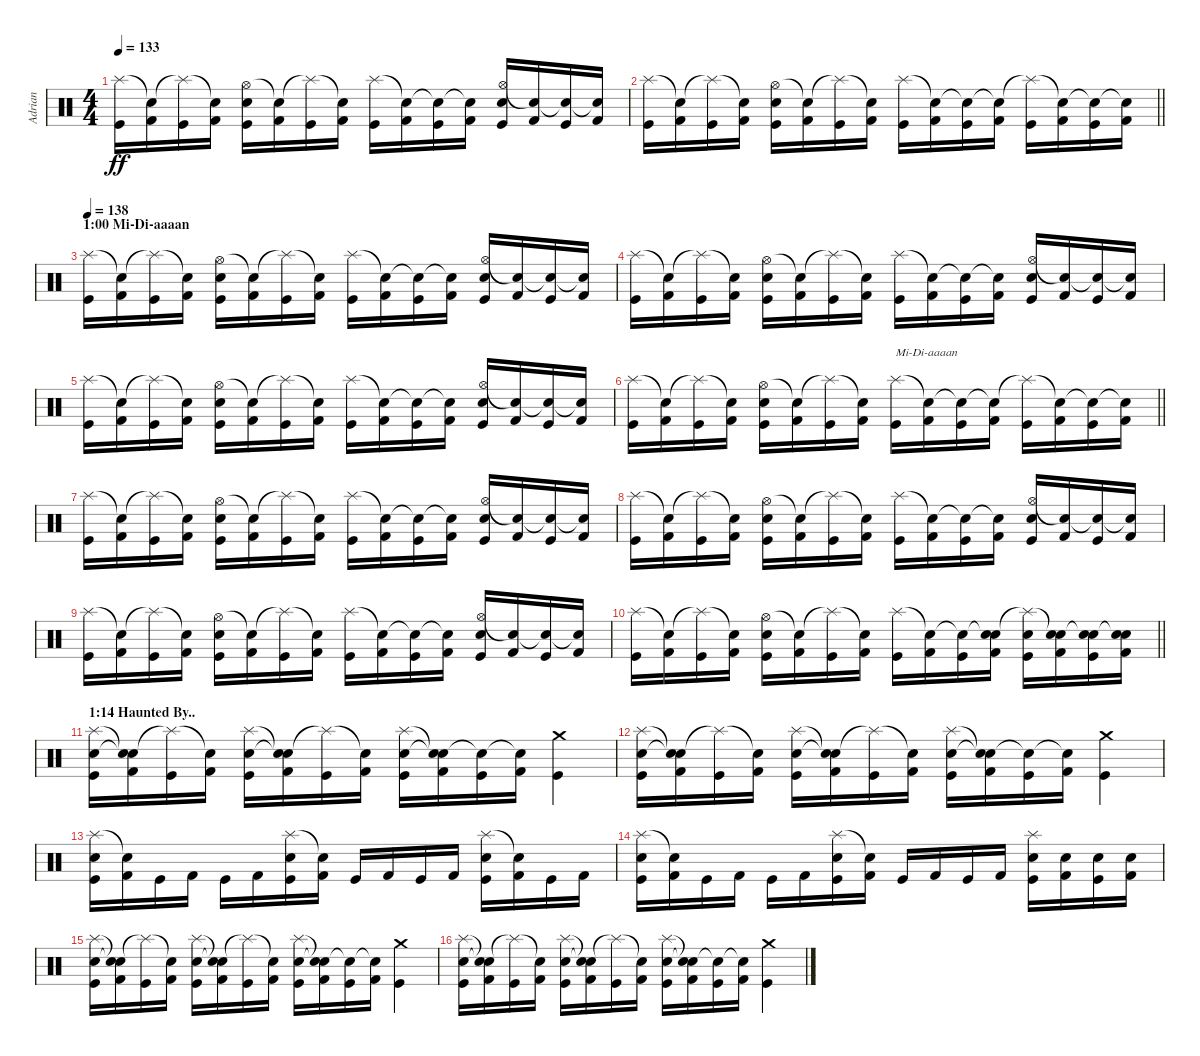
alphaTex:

\track ("Adrian" "Adrian") {instrument percussion}
\staff {score}
\articulation defaults
\ts (4 4)
\tempo 133
\clef neutral
\ks c
("Splash (hit)" "Kick (hit)").16{dy ff} ("Snare (hit)"{t} "Kick (hit) 2").16 ("Splash (hit)"{t} "Kick (hit)").16 ("Snare (hit)"{t} "Kick (hit) 2").16 ("Hi-Hat (open)" "Electric Snare (hit)" "Kick (hit)").16 ("Snare (hit)"{t} "Kick (hit) 2").16 ("Splash (hit)"{t} "Kick (hit)").16 ("Snare (hit)"{t} "Kick (hit) 2").16 ("Splash (hit)" "Kick (hit)").16 ("Snare (hit)"{t} "Kick (hit) 2").16 ("Snare (hit)"{t} "Kick (hit)").16 ("Snare (hit)"{t} "Kick (hit) 2").16 ("Hi-Hat (open)" "Electric Snare (hit)" "Kick (hit)").16 ("Snare (hit)"{t} "Kick (hit) 2").16 ("Snare (hit)"{t} "Kick (hit)").16 ("Snare (hit)"{t} "Kick (hit) 2").16 |
\barLineRight lightlight
("Splash (hit)" "Kick (hit)").16 ("Snare (hit)"{t} "Kick (hit) 2").16 ("Splash (hit)"{t} "Kick (hit)").16 ("Snare (hit)"{t} "Kick (hit) 2").16 ("Hi-Hat (open)" "Electric Snare (hit)" "Kick (hit)").16 ("Snare (hit)"{t} "Kick (hit) 2").16 ("Splash (hit)"{t} "Kick (hit)").16 ("Snare (hit)"{t} "Kick (hit) 2").16 ("Splash (hit)" "Kick (hit)").16 ("Snare (hit)"{t} "Kick (hit) 2").16 ("Snare (hit)"{t} "Kick (hit)").16 ("Snare (hit)"{t} "Kick (hit) 2").16 ("Splash (hit)"{t} "Kick (hit)").16 ("Snare (hit)"{t} "Kick (hit) 2").16 ("Snare (hit)"{t} "Kick (hit)").16 ("Snare (hit)"{t} "Kick (hit) 2").16 |
\section ("" "1:00 Mi-Di-aaaan")
\tempo 138
("Splash (hit)" "Kick (hit)").16 ("Snare (hit)"{t} "Kick (hit) 2").16 ("Splash (hit)"{t} "Kick (hit)").16 ("Snare (hit)"{t} "Kick (hit) 2").16 ("Hi-Hat (open)" "Electric Snare (hit)" "Kick (hit)").16 ("Snare (hit)"{t} "Kick (hit) 2").16 ("Splash (hit)"{t} "Kick (hit)").16 ("Snare (hit)"{t} "Kick (hit) 2").16 ("Splash (hit)" "Kick (hit)").16 ("Snare (hit)"{t} "Kick (hit) 2").16 ("Snare (hit)"{t} "Kick (hit)").16 ("Snare (hit)"{t} "Kick (hit) 2").16 ("Hi-Hat (open)" "Electric Snare (hit)" "Kick (hit)").16 ("Snare (hit)"{t} "Kick (hit) 2").16 ("Snare (hit)"{t} "Kick (hit)").16 ("Snare (hit)"{t} "Kick (hit) 2").16 |
("Splash (hit)" "Kick (hit)").16 ("Snare (hit)"{t} "Kick (hit) 2").16 ("Splash (hit)"{t} "Kick (hit)").16 ("Snare (hit)"{t} "Kick (hit) 2").16 ("Hi-Hat (open)" "Electric Snare (hit)" "Kick (hit)").16 ("Snare (hit)"{t} "Kick (hit) 2").16 ("Splash (hit)"{t} "Kick (hit)").16 ("Snare (hit)"{t} "Kick (hit) 2").16 ("Splash (hit)" "Kick (hit)").16 ("Snare (hit)"{t} "Kick (hit) 2").16 ("Snare (hit)"{t} "Kick (hit)").16 ("Snare (hit)"{t} "Kick (hit) 2").16 ("Hi-Hat (open)" "Electric Snare (hit)" "Kick (hit)").16 ("Snare (hit)"{t} "Kick (hit) 2").16 ("Snare (hit)"{t} "Kick (hit)").16 ("Snare (hit)"{t} "Kick (hit) 2").16 |
("Splash (hit)" "Kick (hit)").16 ("Snare (hit)"{t} "Kick (hit) 2").16 ("Splash (hit)"{t} "Kick (hit)").16 ("Snare (hit)"{t} "Kick (hit) 2").16 ("Hi-Hat (open)" "Electric Snare (hit)" "Kick (hit)").16 ("Snare (hit)"{t} "Kick (hit) 2").16 ("Splash (hit)"{t} "Kick (hit)").16 ("Snare (hit)"{t} "Kick (hit) 2").16 ("Splash (hit)" "Kick (hit)").16 ("Snare (hit)"{t} "Kick (hit) 2").16 ("Snare (hit)"{t} "Kick (hit)").16 ("Snare (hit)"{t} "Kick (hit) 2").16 ("Hi-Hat (open)" "Electric Snare (hit)" "Kick (hit)").16 ("Snare (hit)"{t} "Kick (hit) 2").16 ("Snare (hit)"{t} "Kick (hit)").16 ("Snare (hit)"{t} "Kick (hit) 2").16 |
\barLineRight lightlight
("Splash (hit)" "Kick (hit)").16 ("Snare (hit)"{t} "Kick (hit) 2").16 ("Splash (hit)"{t} "Kick (hit)").16 ("Snare (hit)"{t} "Kick (hit) 2").16 ("Hi-Hat (open)" "Electric Snare (hit)" "Kick (hit)").16 ("Snare (hit)"{t} "Kick (hit) 2").16 ("Splash (hit)"{t} "Kick (hit)").16 ("Snare (hit)"{t} "Kick (hit) 2").16 ("Splash (hit)" "Kick (hit)").16{txt "Mi-Di-aaaan"} ("Snare (hit)"{t} "Kick (hit) 2").16 ("Snare (hit)"{t} "Kick (hit)").16 ("Snare (hit)"{t} "Kick (hit) 2").16 ("Splash (hit)"{t} "Kick (hit)").16 ("Snare (hit)"{t} "Kick (hit) 2").16 ("Snare (hit)"{t} "Kick (hit)").16 ("Snare (hit)"{t} "Kick (hit) 2").16 |
("Splash (hit)" "Kick (hit)").16 ("Snare (hit)"{t} "Kick (hit) 2").16 ("Splash (hit)"{t} "Kick (hit)").16 ("Snare (hit)"{t} "Kick (hit) 2").16 ("Hi-Hat (open)" "Electric Snare (hit)" "Kick (hit)").16 ("Snare (hit)"{t} "Kick (hit) 2").16 ("Splash (hit)"{t} "Kick (hit)").16 ("Snare (hit)"{t} "Kick (hit) 2").16 ("Splash (hit)" "Kick (hit)").16 ("Snare (hit)"{t} "Kick (hit) 2").16 ("Snare (hit)"{t} "Kick (hit)").16 ("Snare (hit)"{t} "Kick (hit) 2").16 ("Hi-Hat (open)" "Electric Snare (hit)" "Kick (hit)").16 ("Snare (hit)"{t} "Kick (hit) 2").16 ("Snare (hit)"{t} "Kick (hit)").16 ("Snare (hit)"{t} "Kick (hit) 2").16 |
("Splash (hit)" "Kick (hit)").16 ("Snare (hit)"{t} "Kick (hit) 2").16 ("Splash (hit)"{t} "Kick (hit)").16 ("Snare (hit)"{t} "Kick (hit) 2").16 ("Hi-Hat (open)" "Electric Snare (hit)" "Kick (hit)").16 ("Snare (hit)"{t} "Kick (hit) 2").16 ("Splash (hit)"{t} "Kick (hit)").16 ("Snare (hit)"{t} "Kick (hit) 2").16 ("Splash (hit)" "Kick (hit)").16 ("Snare (hit)"{t} "Kick (hit) 2").16 ("Snare (hit)"{t} "Kick (hit)").16 ("Snare (hit)"{t} "Kick (hit) 2").16 ("Hi-Hat (open)" "Electric Snare (hit)" "Kick (hit)").16 ("Snare (hit)"{t} "Kick (hit) 2").16 ("Snare (hit)"{t} "Kick (hit)").16 ("Snare (hit)"{t} "Kick (hit) 2").16 |
("Splash (hit)" "Kick (hit)").16 ("Snare (hit)"{t} "Kick (hit) 2").16 ("Splash (hit)"{t} "Kick (hit)").16 ("Snare (hit)"{t} "Kick (hit) 2").16 ("Hi-Hat (open)" "Electric Snare (hit)" "Kick (hit)").16 ("Snare (hit)"{t} "Kick (hit) 2").16 ("Splash (hit)"{t} "Kick (hit)").16 ("Snare (hit)"{t} "Kick (hit) 2").16 ("Splash (hit)" "Kick (hit)").16 ("Snare (hit)"{t} "Kick (hit) 2").16 ("Snare (hit)"{t} "Kick (hit)").16 ("Snare (hit)"{t} "Kick (hit) 2").16 ("Hi-Hat (open)" "Electric Snare (hit)" "Kick (hit)").16 ("Snare (hit)"{t} "Kick (hit) 2").16 ("Snare (hit)"{t} "Kick (hit)").16 ("Snare (hit)"{t} "Kick (hit) 2").16 |
\barLineRight lightlight
("Splash (hit)" "Kick (hit)").16 ("Snare (hit)"{t} "Kick (hit) 2").16 ("Splash (hit)"{t} "Kick (hit)").16 ("Snare (hit)"{t} "Kick (hit) 2").16 ("Hi-Hat (open)" "Electric Snare (hit)" "Kick (hit)").16 ("Snare (hit)"{t} "Kick (hit) 2").16 ("Splash (hit)"{t} "Kick (hit)").16 ("Snare (hit)"{t} "Kick (hit) 2").16 ("Splash (hit)" "Kick (hit)").16 ("Snare (hit)"{t} "Kick (hit) 2").16 ("Snare (hit)"{t} "Kick (hit)").16 ("Snare (hit)"{t} "Electric Snare (hit)" "Kick (hit) 2").16 ("Splash (hit)"{t} "Electric Snare (hit)" "Kick (hit)").16 ("Snare (hit)"{t} "Electric Snare (hit)" "Kick (hit) 2").16 ("Snare (hit)"{t} "Electric Snare (hit)" "Kick (hit)").16 ("Snare (hit)"{t} "Electric Snare (hit)" "Kick (hit) 2").16 |
\section ("" "1:14 Haunted By..")
("Splash (hit)" "Electric Snare (hit)" "Kick (hit)").16 ("Snare (hit)"{t} "Snare (hit)"{t} "Kick (hit) 2").16 ("Splash (hit)"{t} "Kick (hit)").16 ("Snare (hit)"{t} "Kick (hit) 2").16 ("Splash (hit)" "Electric Snare (hit)" "Kick (hit)").16 ("Snare (hit)"{t} "Snare (hit)"{t} "Kick (hit) 2").16 ("Splash (hit)"{t} "Kick (hit)").16 ("Snare (hit)"{t} "Kick (hit) 2").16 ("Splash (hit)" "Electric Snare (hit)" "Kick (hit)").16 ("Snare (hit)"{t} "Snare (hit)"{t} "Kick (hit) 2").16 ("Snare (hit)"{t} "Kick (hit)").16 ("Snare (hit)"{t} "Kick (hit) 2").16 ("Crash medium (hit)" "Kick (hit)").4 |
("Splash (hit)" "Electric Snare (hit)" "Kick (hit)").16 ("Snare (hit)"{t} "Snare (hit)"{t} "Kick (hit) 2").16 ("Splash (hit)"{t} "Kick (hit)").16 ("Snare (hit)"{t} "Kick (hit) 2").16 ("Splash (hit)" "Electric Snare (hit)" "Kick (hit)").16 ("Snare (hit)"{t} "Snare (hit)"{t} "Kick (hit) 2").16 ("Splash (hit)"{t} "Kick (hit)").16 ("Snare (hit)"{t} "Kick (hit) 2").16 ("Splash (hit)" "Electric Snare (hit)" "Kick (hit)").16 ("Snare (hit)"{t} "Snare (hit)"{t} "Kick (hit) 2").16 ("Snare (hit)"{t} "Kick (hit)").16 ("Snare (hit)"{t} "Kick (hit) 2").16 ("Crash medium (hit)" "Kick (hit)").4 |
("Splash (hit)" "Electric Snare (hit)" "Kick (hit)").16 ("Snare (hit)"{t} "Kick (hit) 2").16 "Kick (hit)".16 "Kick (hit) 2".16 "Kick (hit)".16 "Kick (hit) 2".16 ("Splash (hit)" "Electric Snare (hit)" "Kick (hit)").16 ("Snare (hit)"{t} "Kick (hit) 2").16 "Kick (hit)".16 "Kick (hit) 2".16 "Kick (hit)".16 "Kick (hit) 2".16 ("Splash (hit)" "Electric Snare (hit)" "Kick (hit)").16 ("Snare (hit)"{t} "Kick (hit) 2").16 "Kick (hit)".16 "Kick (hit) 2".16 |
("Splash (hit)" "Electric Snare (hit)" "Kick (hit)").16 ("Snare (hit)"{t} "Kick (hit) 2").16 "Kick (hit)".16 "Kick (hit) 2".16 "Kick (hit)".16 "Kick (hit) 2".16 ("Splash (hit)" "Electric Snare (hit)" "Kick (hit)").16 ("Snare (hit)"{t} "Kick (hit) 2").16 "Kick (hit)".16 "Kick (hit) 2".16 "Kick (hit)".16 "Kick (hit) 2".16 ("Splash (hit)" "Electric Snare (hit)" "Kick (hit)").16 ("Electric Snare (hit)" "Kick (hit) 2").16 ("Electric Snare (hit)" "Kick (hit)").16 ("Electric Snare (hit)" "Kick (hit) 2").16 |
("Splash (hit)" "Electric Snare (hit)" "Kick (hit)").16 ("Snare (hit)"{t} "Snare (hit)"{t} "Kick (hit) 2").16 ("Splash (hit)"{t} "Kick (hit)").16 ("Snare (hit)"{t} "Kick (hit) 2").16 ("Splash (hit)" "Electric Snare (hit)" "Kick (hit)").16 ("Snare (hit)"{t} "Snare (hit)"{t} "Kick (hit) 2").16 ("Splash (hit)"{t} "Kick (hit)").16 ("Snare (hit)"{t} "Kick (hit) 2").16 ("Splash (hit)" "Electric Snare (hit)" "Kick (hit)").16 ("Snare (hit)"{t} "Snare (hit)"{t} "Kick (hit) 2").16 ("Snare (hit)"{t} "Kick (hit)").16 ("Snare (hit)"{t} "Kick (hit) 2").16 ("Crash medium (hit)" "Kick (hit)").4 |
("Splash (hit)" "Electric Snare (hit)" "Kick (hit)").16 ("Snare (hit)"{t} "Snare (hit)"{t} "Kick (hit) 2").16 ("Splash (hit)"{t} "Kick (hit)").16 ("Snare (hit)"{t} "Kick (hit) 2").16 ("Splash (hit)" "Electric Snare (hit)" "Kick (hit)").16 ("Snare (hit)"{t} "Snare (hit)"{t} "Kick (hit) 2").16 ("Splash (hit)"{t} "Kick (hit)").16 ("Snare (hit)"{t} "Kick (hit) 2").16 ("Splash (hit)" "Electric Snare (hit)" "Kick (hit)").16 ("Snare (hit)"{t} "Snare (hit)"{t} "Kick (hit) 2").16 ("Snare (hit)"{t} "Kick (hit)").16 ("Snare (hit)"{t} "Kick (hit) 2").16 ("Crash medium (hit)" "Kick (hit)").4
